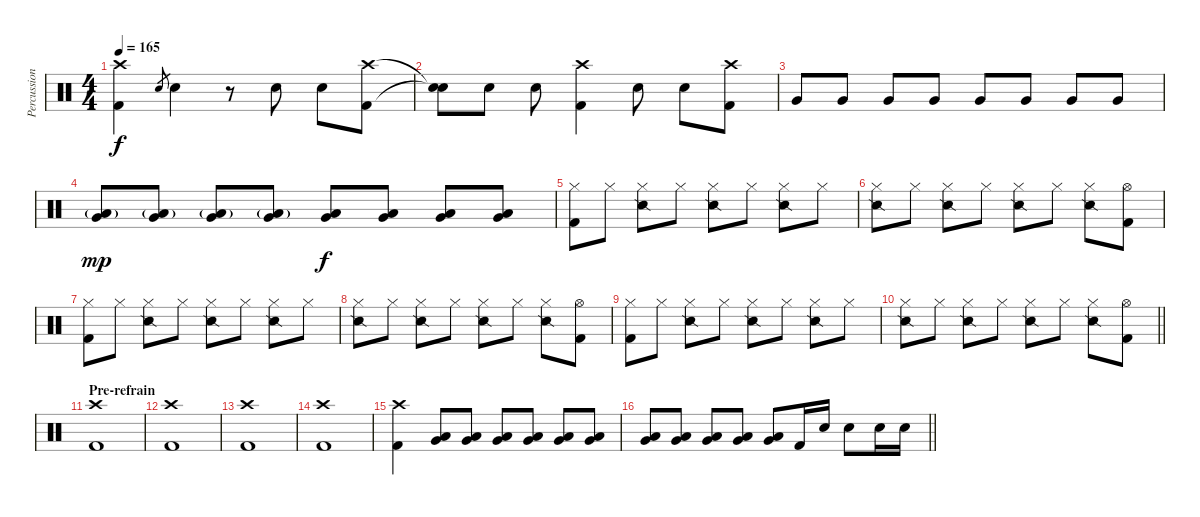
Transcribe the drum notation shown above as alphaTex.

\track ("Percussions" "Percussion") {instrument percussion}
\staff {score}
\articulation defaults
\ts (4 4)
\tempo 165
\clef neutral
\ks c
("Crash high (hit)"{t} "Kick (hit) 2"{t}).4{dy f} "Electric Snare (hit)".8{gr} "Electric Snare (hit)".4 r.8 "Electric Snare (hit)".8 "Electric Snare (hit)".8 ("Crash high (hit)" "Kick (hit) 2").8 |
("Snare (hit)"{t} "Snare (hit)"{t}).8 "Electric Snare (hit)".8 "Electric Snare (hit)".8 ("Crash high (hit)" "Kick (hit) 2").4 "Electric Snare (hit)".8 "Electric Snare (hit)".8 ("Crash high (hit)" "Kick (hit) 2").8 |
"Very Low Tom (hit)".8 "Very Low Tom (hit)".8 "Very Low Tom (hit)".8 "Very Low Tom (hit)".8 "Very Low Tom (hit)".8 "Very Low Tom (hit)".8 "Very Low Tom (hit)".8 "Very Low Tom (hit)".8 |
("Very Low Tom (hit)" "Low Floor Tom (hit)"{g}).8{dy mp} ("Very Low Tom (hit)" "Low Floor Tom (hit)"{g}).8 ("Very Low Tom (hit)" "Low Floor Tom (hit)"{g}).8 ("Very Low Tom (hit)" "Low Floor Tom (hit)"{g}).8 ("Very Low Tom (hit)" "Low Floor Tom (hit)").8{dy f} ("Very Low Tom (hit)" "Low Floor Tom (hit)").8 ("Very Low Tom (hit)" "Low Floor Tom (hit)").8 ("Very Low Tom (hit)" "Low Floor Tom (hit)").8 |
("Hi-Hat (closed)" "Kick (hit) 2").8 "Hi-Hat (closed)".8 ("Hi-Hat (closed)" "Snare (side stick) 2").8 "Hi-Hat (closed)".8 ("Hi-Hat (closed)" "Snare (side stick) 2").8 "Hi-Hat (closed)".8 ("Hi-Hat (closed)" "Snare (side stick) 2").8 "Hi-Hat (closed)".8 |
("Hi-Hat (closed)" "Snare (side stick) 2").8 "Hi-Hat (closed)".8 ("Hi-Hat (closed)" "Snare (side stick) 2").8 "Hi-Hat (closed)".8 ("Hi-Hat (closed)" "Snare (side stick) 2").8 "Hi-Hat (closed)".8 ("Hi-Hat (closed)" "Snare (side stick) 2").8 ("Hi-Hat (open)" "Kick (hit) 2").8 |
("Hi-Hat (closed)" "Kick (hit) 2").8 "Hi-Hat (closed)".8 ("Hi-Hat (closed)" "Snare (side stick) 2").8 "Hi-Hat (closed)".8 ("Hi-Hat (closed)" "Snare (side stick) 2").8 "Hi-Hat (closed)".8 ("Hi-Hat (closed)" "Snare (side stick) 2").8 "Hi-Hat (closed)".8 |
("Hi-Hat (closed)" "Snare (side stick) 2").8 "Hi-Hat (closed)".8 ("Hi-Hat (closed)" "Snare (side stick) 2").8 "Hi-Hat (closed)".8 ("Hi-Hat (closed)" "Snare (side stick) 2").8 "Hi-Hat (closed)".8 ("Hi-Hat (closed)" "Snare (side stick) 2").8 ("Hi-Hat (open)" "Kick (hit) 2").8 |
("Hi-Hat (closed)" "Kick (hit) 2").8 "Hi-Hat (closed)".8 ("Hi-Hat (closed)" "Snare (side stick) 2").8 "Hi-Hat (closed)".8 ("Hi-Hat (closed)" "Snare (side stick) 2").8 "Hi-Hat (closed)".8 ("Hi-Hat (closed)" "Snare (side stick) 2").8 "Hi-Hat (closed)".8 |
\barLineRight lightlight
("Hi-Hat (closed)" "Snare (side stick) 2").8 "Hi-Hat (closed)".8 ("Hi-Hat (closed)" "Snare (side stick) 2").8 "Hi-Hat (closed)".8 ("Hi-Hat (closed)" "Snare (side stick) 2").8 "Hi-Hat (closed)".8 ("Hi-Hat (closed)" "Snare (side stick) 2").8 ("Hi-Hat (open)" "Kick (hit) 2").8 |
\section ("" "Pre-refrain")
("Crash high (hit)" "Kick (hit) 2").1 |
("Crash high (hit)" "Kick (hit) 2").1 |
("Crash high (hit)" "Kick (hit) 2").1 |
("Crash high (hit)" "Kick (hit) 2").1 |
("Crash high (hit)" "Kick (hit) 2").4 ("Very Low Tom (hit)" "Low Floor Tom (hit)").8 ("Very Low Tom (hit)" "Low Floor Tom (hit)").8 ("Very Low Tom (hit)" "Low Floor Tom (hit)").8 ("Very Low Tom (hit)" "Low Floor Tom (hit)").8 ("Very Low Tom (hit)" "Low Floor Tom (hit)").8 ("Very Low Tom (hit)" "Low Floor Tom (hit)").8 |
\barLineRight lightlight
("Very Low Tom (hit)" "Low Floor Tom (hit)").8 ("Very Low Tom (hit)" "Low Floor Tom (hit)").8 ("Very Low Tom (hit)" "Low Floor Tom (hit)").8 ("Very Low Tom (hit)" "Low Floor Tom (hit)").8 ("Very Low Tom (hit)" "Low Floor Tom (hit)").8 "Kick (hit) 2".16 "Electric Snare (hit)".16 "Electric Snare (hit)".8 "Electric Snare (hit)".16 "Electric Snare (hit)".16
